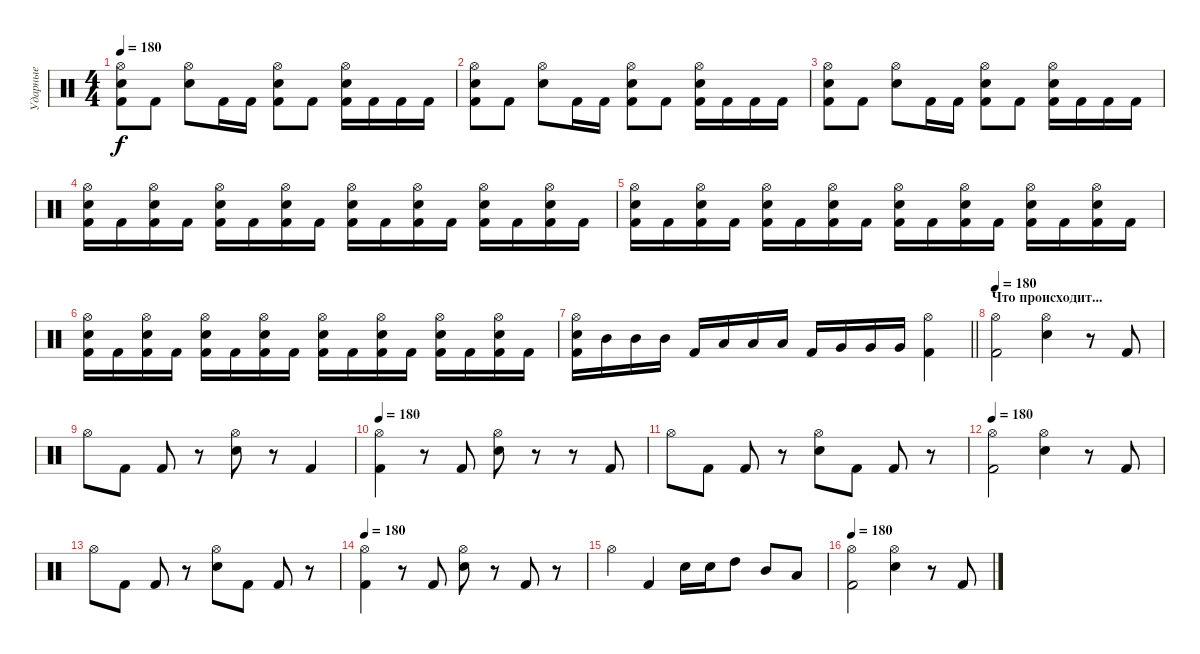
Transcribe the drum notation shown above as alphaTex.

\track ("Ударные" "Ударные") {instrument percussion}
\staff {score}
\articulation defaults
\ts (4 4)
\tempo 180
\clef neutral
\ks c
("Hi-Hat (open)" "Electric Snare (hit)" "Kick (hit) 2").8{dy f} "Kick (hit) 2".8 ("Hi-Hat (open)" "Electric Snare (hit)").8 "Kick (hit) 2".16 "Kick (hit) 2".16 ("Hi-Hat (open)" "Electric Snare (hit)" "Kick (hit) 2").8 "Kick (hit) 2".8 ("Hi-Hat (open)" "Electric Snare (hit)" "Kick (hit) 2").16 "Kick (hit) 2".16 "Kick (hit) 2".16 "Kick (hit) 2".16 |
("Hi-Hat (open)" "Electric Snare (hit)" "Kick (hit) 2").8 "Kick (hit) 2".8 ("Hi-Hat (open)" "Electric Snare (hit)").8 "Kick (hit) 2".16 "Kick (hit) 2".16 ("Hi-Hat (open)" "Electric Snare (hit)" "Kick (hit) 2").8 "Kick (hit) 2".8 ("Hi-Hat (open)" "Electric Snare (hit)" "Kick (hit) 2").16 "Kick (hit) 2".16 "Kick (hit) 2".16 "Kick (hit) 2".16 |
("Hi-Hat (open)" "Electric Snare (hit)" "Kick (hit) 2").8 "Kick (hit) 2".8 ("Hi-Hat (open)" "Electric Snare (hit)").8 "Kick (hit) 2".16 "Kick (hit) 2".16 ("Hi-Hat (open)" "Electric Snare (hit)" "Kick (hit) 2").8 "Kick (hit) 2".8 ("Hi-Hat (open)" "Electric Snare (hit)" "Kick (hit) 2").16 "Kick (hit) 2".16 "Kick (hit) 2".16 "Kick (hit) 2".16 |
("Hi-Hat (open)" "Electric Snare (hit)" "Kick (hit) 2").16 "Kick (hit) 2".16 ("Hi-Hat (open)" "Electric Snare (hit)" "Kick (hit) 2").16 "Kick (hit) 2".16 ("Hi-Hat (open)" "Electric Snare (hit)" "Kick (hit) 2").16 "Kick (hit) 2".16 ("Hi-Hat (open)" "Electric Snare (hit)" "Kick (hit) 2").16 "Kick (hit) 2".16 ("Hi-Hat (open)" "Electric Snare (hit)" "Kick (hit) 2").16 "Kick (hit) 2".16 ("Hi-Hat (open)" "Electric Snare (hit)" "Kick (hit) 2").16 "Kick (hit) 2".16 ("Hi-Hat (open)" "Electric Snare (hit)" "Kick (hit) 2").16 "Kick (hit) 2".16 ("Hi-Hat (open)" "Electric Snare (hit)" "Kick (hit) 2").16 "Kick (hit) 2".16 |
("Hi-Hat (open)" "Electric Snare (hit)" "Kick (hit) 2").16 "Kick (hit) 2".16 ("Hi-Hat (open)" "Electric Snare (hit)" "Kick (hit) 2").16 "Kick (hit) 2".16 ("Hi-Hat (open)" "Electric Snare (hit)" "Kick (hit) 2").16 "Kick (hit) 2".16 ("Hi-Hat (open)" "Electric Snare (hit)" "Kick (hit) 2").16 "Kick (hit) 2".16 ("Hi-Hat (open)" "Electric Snare (hit)" "Kick (hit) 2").16 "Kick (hit) 2".16 ("Hi-Hat (open)" "Electric Snare (hit)" "Kick (hit) 2").16 "Kick (hit) 2".16 ("Hi-Hat (open)" "Electric Snare (hit)" "Kick (hit) 2").16 "Kick (hit) 2".16 ("Hi-Hat (open)" "Electric Snare (hit)" "Kick (hit) 2").16 "Kick (hit) 2".16 |
("Hi-Hat (open)" "Electric Snare (hit)" "Kick (hit) 2").16 "Kick (hit) 2".16 ("Hi-Hat (open)" "Electric Snare (hit)" "Kick (hit) 2").16 "Kick (hit) 2".16 ("Hi-Hat (open)" "Electric Snare (hit)" "Kick (hit) 2").16 "Kick (hit) 2".16 ("Hi-Hat (open)" "Electric Snare (hit)" "Kick (hit) 2").16 "Kick (hit) 2".16 ("Hi-Hat (open)" "Electric Snare (hit)" "Kick (hit) 2").16 "Kick (hit) 2".16 ("Hi-Hat (open)" "Electric Snare (hit)" "Kick (hit) 2").16 "Kick (hit) 2".16 ("Hi-Hat (open)" "Electric Snare (hit)" "Kick (hit) 2").16 "Kick (hit) 2".16 ("Hi-Hat (open)" "Electric Snare (hit)" "Kick (hit) 2").16 "Kick (hit) 2".16 |
\barLineRight lightlight
("Hi-Hat (open)" "Electric Snare (hit)" "Kick (hit) 2").16 "Mid Tom (hit)".16 "Mid Tom (hit)".16 "Mid Tom (hit)".16 "Kick (hit) 2".16 "Low Tom (hit)".16 "Low Tom (hit)".16 "Low Tom (hit)".16 "Kick (hit) 2".16 "Very Low Tom (hit)".16 "Very Low Tom (hit)".16 "Very Low Tom (hit)".16 ("Hi-Hat (open)" "Kick (hit) 2").4 |
\section ("" "Что происходит...")
\tempo 180
("Hi-Hat (open)" "Kick (hit) 2").2 ("Hi-Hat (open)" "Electric Snare (hit)").4 r.8 "Kick (hit) 2".8 |
"Hi-Hat (open)".8 "Kick (hit) 2".8 "Kick (hit) 2".8 r.8 ("Hi-Hat (open)" "Electric Snare (hit)").8 r.8 "Kick (hit) 2".4 |
\tempo 180
("Hi-Hat (open)" "Kick (hit) 2").4 r.8 "Kick (hit) 2".8 ("Hi-Hat (open)" "Electric Snare (hit)").8 r.8 r.8 "Kick (hit) 2".8 |
"Hi-Hat (open)".8 "Kick (hit) 2".8 "Kick (hit) 2".8 r.8 ("Hi-Hat (open)" "Electric Snare (hit)").8 "Kick (hit) 2".8 "Kick (hit) 2".8 r.8 |
\tempo 180
("Hi-Hat (open)" "Kick (hit) 2").2 ("Hi-Hat (open)" "Electric Snare (hit)").4 r.8 "Kick (hit) 2".8 |
"Hi-Hat (open)".8 "Kick (hit) 2".8 "Kick (hit) 2".8 r.8 ("Hi-Hat (open)" "Electric Snare (hit)").8 "Kick (hit) 2".8 "Kick (hit) 2".8 r.8 |
\tempo 180
("Hi-Hat (open)" "Kick (hit) 2").4 r.8 "Kick (hit) 2".8 ("Hi-Hat (open)" "Electric Snare (hit)").8 r.8 "Kick (hit) 2".8 r.8 |
"Hi-Hat (open)".4 "Kick (hit) 2".4 "Electric Snare (hit)".16 "Electric Snare (hit)".16 "High Tom (hit)".8 "Mid Tom (hit)".8 "Low Tom (hit)".8 |
\tempo 180
("Hi-Hat (open)" "Kick (hit) 2").2 ("Hi-Hat (open)" "Electric Snare (hit)").4 r.8 "Kick (hit) 2".8
